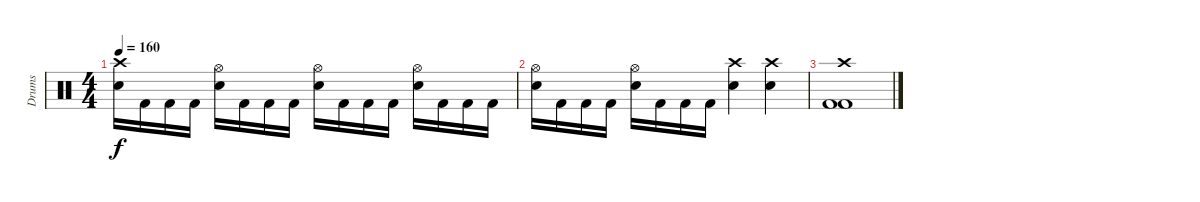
\track ("Drums" "Drums") {instrument percussion}
\staff {score}
\articulation defaults
\ts (4 4)
\tempo 160
\clef neutral
\ks c
("Crash high (hit)" "Electric Snare (hit)").16{dy f} "Kick (hit) 2".16 "Kick (hit) 2".16 "Kick (hit) 2".16 ("Electric Snare (hit)" "Hi-Hat (open)").16 "Kick (hit) 2".16 "Kick (hit) 2".16 "Kick (hit) 2".16 ("Hi-Hat (open)" "Electric Snare (hit)").16 "Kick (hit) 2".16 "Kick (hit) 2".16 "Kick (hit) 2".16 ("Electric Snare (hit)" "Hi-Hat (open)").16 "Kick (hit) 2".16 "Kick (hit) 2".16 "Kick (hit) 2".16 |
("Hi-Hat (open)" "Electric Snare (hit)").16 "Kick (hit) 2".16 "Kick (hit) 2".16 "Kick (hit) 2".16 ("Electric Snare (hit)" "Hi-Hat (open)").16 "Kick (hit) 2".16 "Kick (hit) 2".16 "Kick (hit) 2".16 ("Electric Snare (hit)" "Crash high (hit)").4 ("Crash high (hit)" "Electric Snare (hit)").4 |
("Kick (hit) 2" "Kick (hit) 2" "Crash high (hit)").1
